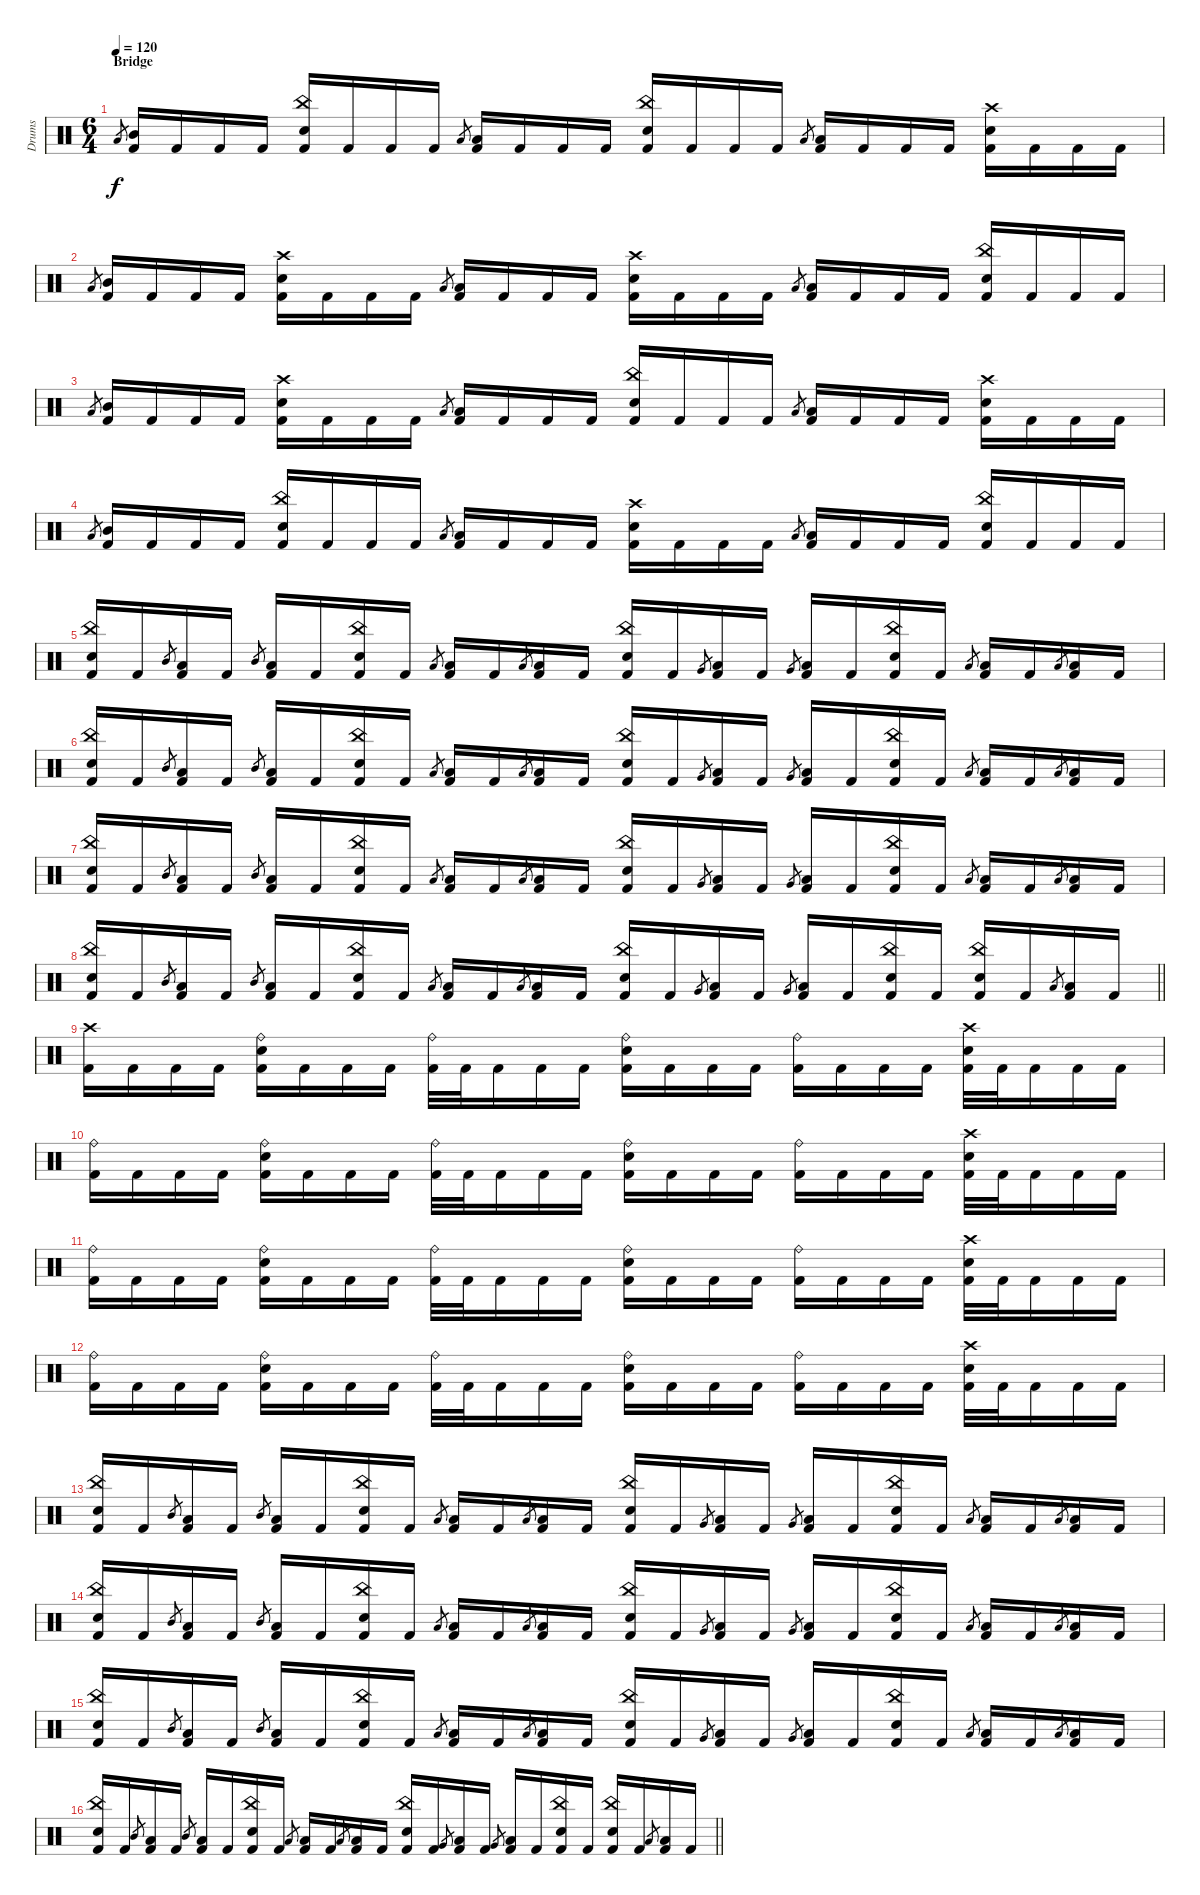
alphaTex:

\track ("Drums" "Drums") {instrument percussion}
\staff {score}
\articulation defaults
\ts (6 4)
\section ("" "Bridge")
\tempo 120
\clef neutral
\ks c "Low Tom (hit)".8{gr dy f}
("Mid Tom (hit)" "Kick (hit) 2").16 "Kick (hit) 2".16 "Kick (hit) 2".16 "Kick (hit) 2".16 ("China (hit)" "Electric Snare (hit)" "Kick (hit) 2").16 "Kick (hit) 2".16 "Kick (hit) 2".16 "Kick (hit) 2".16 "Low Tom (hit)".8{gr} ("Low Tom (hit)" "Kick (hit) 2").16 "Kick (hit) 2".16 "Kick (hit) 2".16 "Kick (hit) 2".16 ("China (hit)" "Electric Snare (hit)" "Kick (hit) 2").16 "Kick (hit) 2".16 "Kick (hit) 2".16 "Kick (hit) 2".16 "Low Tom (hit)".8{gr} ("Low Tom (hit)" "Kick (hit) 2").16 "Kick (hit) 2".16 "Kick (hit) 2".16 "Kick (hit) 2".16 ("Crash high (hit)" "Electric Snare (hit)" "Kick (hit) 2").16 "Kick (hit) 2".16 "Kick (hit) 2".16 "Kick (hit) 2".16 |
"Low Tom (hit)".8{gr} ("Mid Tom (hit)" "Kick (hit) 2").16 "Kick (hit) 2".16 "Kick (hit) 2".16 "Kick (hit) 2".16 ("Crash high (hit)" "Electric Snare (hit)" "Kick (hit) 2").16 "Kick (hit) 2".16 "Kick (hit) 2".16 "Kick (hit) 2".16 "Low Tom (hit)".8{gr} ("Low Tom (hit)" "Kick (hit) 2").16 "Kick (hit) 2".16 "Kick (hit) 2".16 "Kick (hit) 2".16 ("Crash high (hit)" "Electric Snare (hit)" "Kick (hit) 2").16 "Kick (hit) 2".16 "Kick (hit) 2".16 "Kick (hit) 2".16 "Low Tom (hit)".8{gr} ("Low Tom (hit)" "Kick (hit) 2").16 "Kick (hit) 2".16 "Kick (hit) 2".16 "Kick (hit) 2".16 ("China (hit)" "Electric Snare (hit)" "Kick (hit) 2").16 "Kick (hit) 2".16 "Kick (hit) 2".16 "Kick (hit) 2".16 |
"Low Tom (hit)".8{gr} ("Mid Tom (hit)" "Kick (hit) 2").16 "Kick (hit) 2".16 "Kick (hit) 2".16 "Kick (hit) 2".16 ("Crash high (hit)" "Electric Snare (hit)" "Kick (hit) 2").16 "Kick (hit) 2".16 "Kick (hit) 2".16 "Kick (hit) 2".16 "Low Tom (hit)".8{gr} ("Low Tom (hit)" "Kick (hit) 2").16 "Kick (hit) 2".16 "Kick (hit) 2".16 "Kick (hit) 2".16 ("China (hit)" "Electric Snare (hit)" "Kick (hit) 2").16 "Kick (hit) 2".16 "Kick (hit) 2".16 "Kick (hit) 2".16 "Low Tom (hit)".8{gr} ("Low Tom (hit)" "Kick (hit) 2").16 "Kick (hit) 2".16 "Kick (hit) 2".16 "Kick (hit) 2".16 ("Crash high (hit)" "Electric Snare (hit)" "Kick (hit) 2").16 "Kick (hit) 2".16 "Kick (hit) 2".16 "Kick (hit) 2".16 |
"Low Tom (hit)".8{gr} ("Mid Tom (hit)" "Kick (hit) 2").16 "Kick (hit) 2".16 "Kick (hit) 2".16 "Kick (hit) 2".16 ("China (hit)" "Electric Snare (hit)" "Kick (hit) 2").16 "Kick (hit) 2".16 "Kick (hit) 2".16 "Kick (hit) 2".16 "Low Tom (hit)".8{gr} ("Low Tom (hit)" "Kick (hit) 2").16 "Kick (hit) 2".16 "Kick (hit) 2".16 "Kick (hit) 2".16 ("Crash high (hit)" "Electric Snare (hit)" "Kick (hit) 2").16 "Kick (hit) 2".16 "Kick (hit) 2".16 "Kick (hit) 2".16 "Low Tom (hit)".8{gr} ("Low Tom (hit)" "Kick (hit) 2").16 "Kick (hit) 2".16 "Kick (hit) 2".16 "Kick (hit) 2".16 ("China (hit)" "Electric Snare (hit)" "Kick (hit) 2").16 "Kick (hit) 2".16 "Kick (hit) 2".16 "Kick (hit) 2".16 |
("China (hit)" "Electric Snare (hit)" "Kick (hit) 2").16 "Kick (hit) 2".16 "Mid Tom (hit)".8{gr} ("Low Floor Tom (hit)" "Kick (hit) 2").16 "Kick (hit) 2".16 "Mid Tom (hit)".8{gr} ("Low Floor Tom (hit)" "Kick (hit) 2").16 "Kick (hit) 2".16 ("China (hit)" "Electric Snare (hit)" "Kick (hit) 2").16 "Kick (hit) 2".16 "Low Tom (hit)".8{gr} ("Low Floor Tom (hit)" "Kick (hit) 2").16 "Kick (hit) 2".16 "Low Tom (hit)".8{gr} ("Low Floor Tom (hit)" "Kick (hit) 2").16 "Kick (hit) 2".16 ("China (hit)" "Electric Snare (hit)" "Kick (hit) 2").16 "Kick (hit) 2".16 "Very Low Tom (hit)".8{gr} ("Low Floor Tom (hit)" "Kick (hit) 2").16 "Kick (hit) 2".16 "Very Low Tom (hit)".8{gr} ("Low Floor Tom (hit)" "Kick (hit) 2").16 "Kick (hit) 2".16 ("China (hit)" "Electric Snare (hit)" "Kick (hit) 2").16 "Kick (hit) 2".16 "Low Floor Tom (hit)".8{gr} ("Low Floor Tom (hit)" "Kick (hit) 2").16 "Kick (hit) 2".16 "Low Floor Tom (hit)".8{gr} ("Low Floor Tom (hit)" "Kick (hit) 2").16 "Kick (hit) 2".16 |
("China (hit)" "Electric Snare (hit)" "Kick (hit) 2").16 "Kick (hit) 2".16 "Mid Tom (hit)".8{gr} ("Low Floor Tom (hit)" "Kick (hit) 2").16 "Kick (hit) 2".16 "Mid Tom (hit)".8{gr} ("Low Floor Tom (hit)" "Kick (hit) 2").16 "Kick (hit) 2".16 ("China (hit)" "Electric Snare (hit)" "Kick (hit) 2").16 "Kick (hit) 2".16 "Low Tom (hit)".8{gr} ("Low Floor Tom (hit)" "Kick (hit) 2").16 "Kick (hit) 2".16 "Low Tom (hit)".8{gr} ("Low Floor Tom (hit)" "Kick (hit) 2").16 "Kick (hit) 2".16 ("China (hit)" "Electric Snare (hit)" "Kick (hit) 2").16 "Kick (hit) 2".16 "Very Low Tom (hit)".8{gr} ("Low Floor Tom (hit)" "Kick (hit) 2").16 "Kick (hit) 2".16 "Very Low Tom (hit)".8{gr} ("Low Floor Tom (hit)" "Kick (hit) 2").16 "Kick (hit) 2".16 ("China (hit)" "Electric Snare (hit)" "Kick (hit) 2").16 "Kick (hit) 2".16 "Low Floor Tom (hit)".8{gr} ("Low Floor Tom (hit)" "Kick (hit) 2").16 "Kick (hit) 2".16 "Low Floor Tom (hit)".8{gr} ("Low Floor Tom (hit)" "Kick (hit) 2").16 "Kick (hit) 2".16 |
("China (hit)" "Electric Snare (hit)" "Kick (hit) 2").16 "Kick (hit) 2".16 "Mid Tom (hit)".8{gr} ("Low Floor Tom (hit)" "Kick (hit) 2").16 "Kick (hit) 2".16 "Mid Tom (hit)".8{gr} ("Low Floor Tom (hit)" "Kick (hit) 2").16 "Kick (hit) 2".16 ("China (hit)" "Electric Snare (hit)" "Kick (hit) 2").16 "Kick (hit) 2".16 "Low Tom (hit)".8{gr} ("Low Floor Tom (hit)" "Kick (hit) 2").16 "Kick (hit) 2".16 "Low Tom (hit)".8{gr} ("Low Floor Tom (hit)" "Kick (hit) 2").16 "Kick (hit) 2".16 ("China (hit)" "Electric Snare (hit)" "Kick (hit) 2").16 "Kick (hit) 2".16 "Very Low Tom (hit)".8{gr} ("Low Floor Tom (hit)" "Kick (hit) 2").16 "Kick (hit) 2".16 "Very Low Tom (hit)".8{gr} ("Low Floor Tom (hit)" "Kick (hit) 2").16 "Kick (hit) 2".16 ("China (hit)" "Electric Snare (hit)" "Kick (hit) 2").16 "Kick (hit) 2".16 "Low Floor Tom (hit)".8{gr} ("Low Floor Tom (hit)" "Kick (hit) 2").16 "Kick (hit) 2".16 "Low Floor Tom (hit)".8{gr} ("Low Floor Tom (hit)" "Kick (hit) 2").16 "Kick (hit) 2".16 |
\barLineRight lightlight
("China (hit)" "Electric Snare (hit)" "Kick (hit) 2").16 "Kick (hit) 2".16 "Mid Tom (hit)".8{gr} ("Low Floor Tom (hit)" "Kick (hit) 2").16 "Kick (hit) 2".16 "Mid Tom (hit)".8{gr} ("Low Floor Tom (hit)" "Kick (hit) 2").16 "Kick (hit) 2".16 ("China (hit)" "Electric Snare (hit)" "Kick (hit) 2").16 "Kick (hit) 2".16 "Low Tom (hit)".8{gr} ("Low Floor Tom (hit)" "Kick (hit) 2").16 "Kick (hit) 2".16 "Low Tom (hit)".8{gr} ("Low Floor Tom (hit)" "Kick (hit) 2").16 "Kick (hit) 2".16 ("China (hit)" "Electric Snare (hit)" "Kick (hit) 2").16 "Kick (hit) 2".16 "Very Low Tom (hit)".8{gr} ("Low Floor Tom (hit)" "Kick (hit) 2").16 "Kick (hit) 2".16 "Very Low Tom (hit)".8{gr} ("Low Floor Tom (hit)" "Kick (hit) 2").16 "Kick (hit) 2".16 ("China (hit)" "Electric Snare (hit)" "Kick (hit) 2").16 "Kick (hit) 2".16 ("China (hit)" "Electric Snare (hit)" "Kick (hit) 2").16 "Kick (hit) 2".16 "Low Floor Tom (hit)".8{gr} ("Low Floor Tom (hit)" "Kick (hit) 2").16 "Kick (hit) 2".16 |
\section ("" "")
("Crash high (hit)" "Kick (hit) 2").16 "Kick (hit) 2".16 "Kick (hit) 2".16 "Kick (hit) 2".16 ("Ride (bell)" "Electric Snare (hit)" "Kick (hit) 2").16 "Kick (hit) 2".16 "Kick (hit) 2".16 "Kick (hit) 2".16 ("Ride (bell)" "Kick (hit) 2").32 "Kick (hit) 2".32 "Kick (hit) 2".16 "Kick (hit) 2".16 "Kick (hit) 2".16 ("Ride (bell)" "Electric Snare (hit)" "Kick (hit) 2").16 "Kick (hit) 2".16 "Kick (hit) 2".16 "Kick (hit) 2".16 ("Ride (bell)" "Kick (hit) 2").16 "Kick (hit) 2".16 "Kick (hit) 2".16 "Kick (hit) 2".16 ("Crash high (hit)" "Electric Snare (hit)" "Kick (hit) 2").32 "Kick (hit) 2".32 "Kick (hit) 2".16 "Kick (hit) 2".16 "Kick (hit) 2".16 |
("Ride (bell)" "Kick (hit) 2").16 "Kick (hit) 2".16 "Kick (hit) 2".16 "Kick (hit) 2".16 ("Ride (bell)" "Electric Snare (hit)" "Kick (hit) 2").16 "Kick (hit) 2".16 "Kick (hit) 2".16 "Kick (hit) 2".16 ("Ride (bell)" "Kick (hit) 2").32 "Kick (hit) 2".32 "Kick (hit) 2".16 "Kick (hit) 2".16 "Kick (hit) 2".16 ("Ride (bell)" "Electric Snare (hit)" "Kick (hit) 2").16 "Kick (hit) 2".16 "Kick (hit) 2".16 "Kick (hit) 2".16 ("Ride (bell)" "Kick (hit) 2").16 "Kick (hit) 2".16 "Kick (hit) 2".16 "Kick (hit) 2".16 ("Crash high (hit)" "Electric Snare (hit)" "Kick (hit) 2").32 "Kick (hit) 2".32 "Kick (hit) 2".16 "Kick (hit) 2".16 "Kick (hit) 2".16 |
("Ride (bell)" "Kick (hit) 2").16 "Kick (hit) 2".16 "Kick (hit) 2".16 "Kick (hit) 2".16 ("Ride (bell)" "Electric Snare (hit)" "Kick (hit) 2").16 "Kick (hit) 2".16 "Kick (hit) 2".16 "Kick (hit) 2".16 ("Ride (bell)" "Kick (hit) 2").32 "Kick (hit) 2".32 "Kick (hit) 2".16 "Kick (hit) 2".16 "Kick (hit) 2".16 ("Ride (bell)" "Electric Snare (hit)" "Kick (hit) 2").16 "Kick (hit) 2".16 "Kick (hit) 2".16 "Kick (hit) 2".16 ("Ride (bell)" "Kick (hit) 2").16 "Kick (hit) 2".16 "Kick (hit) 2".16 "Kick (hit) 2".16 ("Crash high (hit)" "Electric Snare (hit)" "Kick (hit) 2").32 "Kick (hit) 2".32 "Kick (hit) 2".16 "Kick (hit) 2".16 "Kick (hit) 2".16 |
("Ride (bell)" "Kick (hit) 2").16 "Kick (hit) 2".16 "Kick (hit) 2".16 "Kick (hit) 2".16 ("Ride (bell)" "Electric Snare (hit)" "Kick (hit) 2").16 "Kick (hit) 2".16 "Kick (hit) 2".16 "Kick (hit) 2".16 ("Ride (bell)" "Kick (hit) 2").32 "Kick (hit) 2".32 "Kick (hit) 2".16 "Kick (hit) 2".16 "Kick (hit) 2".16 ("Ride (bell)" "Electric Snare (hit)" "Kick (hit) 2").16 "Kick (hit) 2".16 "Kick (hit) 2".16 "Kick (hit) 2".16 ("Ride (bell)" "Kick (hit) 2").16 "Kick (hit) 2".16 "Kick (hit) 2".16 "Kick (hit) 2".16 ("Crash high (hit)" "Electric Snare (hit)" "Kick (hit) 2").32 "Kick (hit) 2".32 "Kick (hit) 2".16 "Kick (hit) 2".16 "Kick (hit) 2".16 |
("China (hit)" "Electric Snare (hit)" "Kick (hit) 2").16 "Kick (hit) 2".16 "Mid Tom (hit)".8{gr} ("Low Floor Tom (hit)" "Kick (hit) 2").16 "Kick (hit) 2".16 "Mid Tom (hit)".8{gr} ("Low Floor Tom (hit)" "Kick (hit) 2").16 "Kick (hit) 2".16 ("China (hit)" "Electric Snare (hit)" "Kick (hit) 2").16 "Kick (hit) 2".16 "Low Tom (hit)".8{gr} ("Low Floor Tom (hit)" "Kick (hit) 2").16 "Kick (hit) 2".16 "Low Tom (hit)".8{gr} ("Low Floor Tom (hit)" "Kick (hit) 2").16 "Kick (hit) 2".16 ("China (hit)" "Electric Snare (hit)" "Kick (hit) 2").16 "Kick (hit) 2".16 "Very Low Tom (hit)".8{gr} ("Low Floor Tom (hit)" "Kick (hit) 2").16 "Kick (hit) 2".16 "Very Low Tom (hit)".8{gr} ("Low Floor Tom (hit)" "Kick (hit) 2").16 "Kick (hit) 2".16 ("China (hit)" "Electric Snare (hit)" "Kick (hit) 2").16 "Kick (hit) 2".16 "Low Floor Tom (hit)".8{gr} ("Low Floor Tom (hit)" "Kick (hit) 2").16 "Kick (hit) 2".16 "Low Floor Tom (hit)".8{gr} ("Low Floor Tom (hit)" "Kick (hit) 2").16 "Kick (hit) 2".16 |
("China (hit)" "Electric Snare (hit)" "Kick (hit) 2").16 "Kick (hit) 2".16 "Mid Tom (hit)".8{gr} ("Low Floor Tom (hit)" "Kick (hit) 2").16 "Kick (hit) 2".16 "Mid Tom (hit)".8{gr} ("Low Floor Tom (hit)" "Kick (hit) 2").16 "Kick (hit) 2".16 ("China (hit)" "Electric Snare (hit)" "Kick (hit) 2").16 "Kick (hit) 2".16 "Low Tom (hit)".8{gr} ("Low Floor Tom (hit)" "Kick (hit) 2").16 "Kick (hit) 2".16 "Low Tom (hit)".8{gr} ("Low Floor Tom (hit)" "Kick (hit) 2").16 "Kick (hit) 2".16 ("China (hit)" "Electric Snare (hit)" "Kick (hit) 2").16 "Kick (hit) 2".16 "Very Low Tom (hit)".8{gr} ("Low Floor Tom (hit)" "Kick (hit) 2").16 "Kick (hit) 2".16 "Very Low Tom (hit)".8{gr} ("Low Floor Tom (hit)" "Kick (hit) 2").16 "Kick (hit) 2".16 ("China (hit)" "Electric Snare (hit)" "Kick (hit) 2").16 "Kick (hit) 2".16 "Low Floor Tom (hit)".8{gr} ("Low Floor Tom (hit)" "Kick (hit) 2").16 "Kick (hit) 2".16 "Low Floor Tom (hit)".8{gr} ("Low Floor Tom (hit)" "Kick (hit) 2").16 "Kick (hit) 2".16 |
("China (hit)" "Electric Snare (hit)" "Kick (hit) 2").16 "Kick (hit) 2".16 "Mid Tom (hit)".8{gr} ("Low Floor Tom (hit)" "Kick (hit) 2").16 "Kick (hit) 2".16 "Mid Tom (hit)".8{gr} ("Low Floor Tom (hit)" "Kick (hit) 2").16 "Kick (hit) 2".16 ("China (hit)" "Electric Snare (hit)" "Kick (hit) 2").16 "Kick (hit) 2".16 "Low Tom (hit)".8{gr} ("Low Floor Tom (hit)" "Kick (hit) 2").16 "Kick (hit) 2".16 "Low Tom (hit)".8{gr} ("Low Floor Tom (hit)" "Kick (hit) 2").16 "Kick (hit) 2".16 ("China (hit)" "Electric Snare (hit)" "Kick (hit) 2").16 "Kick (hit) 2".16 "Very Low Tom (hit)".8{gr} ("Low Floor Tom (hit)" "Kick (hit) 2").16 "Kick (hit) 2".16 "Very Low Tom (hit)".8{gr} ("Low Floor Tom (hit)" "Kick (hit) 2").16 "Kick (hit) 2".16 ("China (hit)" "Electric Snare (hit)" "Kick (hit) 2").16 "Kick (hit) 2".16 "Low Floor Tom (hit)".8{gr} ("Low Floor Tom (hit)" "Kick (hit) 2").16 "Kick (hit) 2".16 "Low Floor Tom (hit)".8{gr} ("Low Floor Tom (hit)" "Kick (hit) 2").16 "Kick (hit) 2".16 |
\barLineRight lightlight
("China (hit)" "Electric Snare (hit)" "Kick (hit) 2").16 "Kick (hit) 2".16 "Mid Tom (hit)".8{gr} ("Low Floor Tom (hit)" "Kick (hit) 2").16 "Kick (hit) 2".16 "Mid Tom (hit)".8{gr} ("Low Floor Tom (hit)" "Kick (hit) 2").16 "Kick (hit) 2".16 ("China (hit)" "Electric Snare (hit)" "Kick (hit) 2").16 "Kick (hit) 2".16 "Low Tom (hit)".8{gr} ("Low Floor Tom (hit)" "Kick (hit) 2").16 "Kick (hit) 2".16 "Low Tom (hit)".8{gr} ("Low Floor Tom (hit)" "Kick (hit) 2").16 "Kick (hit) 2".16 ("China (hit)" "Electric Snare (hit)" "Kick (hit) 2").16 "Kick (hit) 2".16 "Very Low Tom (hit)".8{gr} ("Low Floor Tom (hit)" "Kick (hit) 2").16 "Kick (hit) 2".16 "Very Low Tom (hit)".8{gr} ("Low Floor Tom (hit)" "Kick (hit) 2").16 "Kick (hit) 2".16 ("China (hit)" "Electric Snare (hit)" "Kick (hit) 2").16 "Kick (hit) 2".16 ("China (hit)" "Electric Snare (hit)" "Kick (hit) 2").16 "Kick (hit) 2".16 "Low Floor Tom (hit)".8{gr} ("Low Floor Tom (hit)" "Kick (hit) 2").16 "Kick (hit) 2".16
